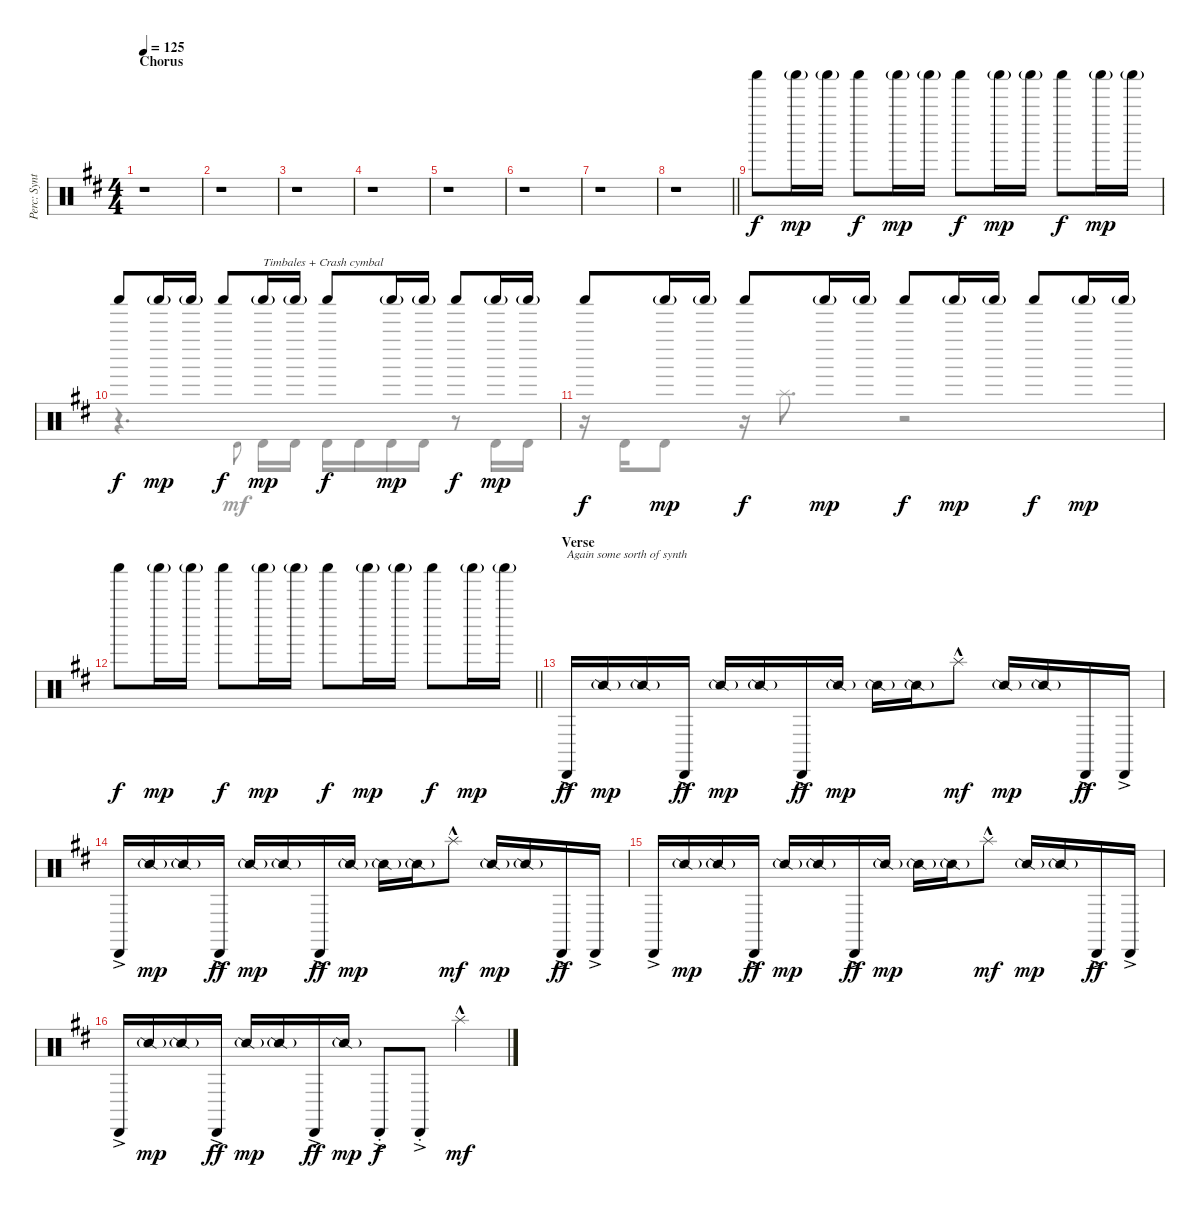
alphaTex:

\track ("Perc: Synth + Shaker + Timbales" "Perc: Synt") {instrument percussion}
\staff {score}
\articulation defaults
\voice
\ts (4 4)
\section ("" "Chorus")
\tempo 125
\clef neutral
\ks bminor
r.1{dy mp} |
r.1 |
r.1 |
r.1 |
r.1 |
r.1 |
r.1 |
\barLineRight lightlight
r.1 |
\section ("" "")
"Shaker (hit)".8{dy f} "Shaker (hit)"{g}.16{dy mp} "Shaker (hit)"{g}.16 "Shaker (hit)".8{dy f} "Shaker (hit)"{g}.16{dy mp} "Shaker (hit)"{g}.16 "Shaker (hit)".8{dy f} "Shaker (hit)"{g}.16{dy mp} "Shaker (hit)"{g}.16 "Shaker (hit)".8{dy f} "Shaker (hit)"{g}.16{dy mp} "Shaker (hit)"{g}.16 |
"Shaker (hit)".8{dy f} "Shaker (hit)"{g}.16{dy mp} "Shaker (hit)"{g}.16 "Shaker (hit)".8{dy f} "Shaker (hit)"{g}.16{txt "Timbales + Crash cymbal" dy mp} "Shaker (hit)"{g}.16 "Shaker (hit)".8{dy f} "Shaker (hit)"{g}.16{dy mp} "Shaker (hit)"{g}.16 "Shaker (hit)".8{dy f} "Shaker (hit)"{g}.16{dy mp} "Shaker (hit)"{g}.16 |
"Shaker (hit)".8{dy f} "Shaker (hit)"{g}.16{dy mp} "Shaker (hit)"{g}.16 "Shaker (hit)".8{dy f} "Shaker (hit)"{g}.16{dy mp} "Shaker (hit)"{g}.16 "Shaker (hit)".8{dy f} "Shaker (hit)"{g}.16{dy mp} "Shaker (hit)"{g}.16 "Shaker (hit)".8{dy f} "Shaker (hit)"{g}.16{dy mp} "Shaker (hit)"{g}.16 |
\barLineRight lightlight "Shaker (hit)".8{dy f} "Shaker (hit)"{g}.16{dy mp} "Shaker (hit)"{g}.16 "Shaker (hit)".8{dy f} "Shaker (hit)"{g}.16{dy mp} "Shaker (hit)"{g}.16 "Shaker (hit)".8{dy f} "Shaker (hit)"{g}.16{dy mp} "Shaker (hit)"{g}.16 "Shaker (hit)".8{dy f} "Shaker (hit)"{g}.16{dy mp} "Shaker (hit)"{g}.16
|
\section ("" "Verse")
"Cabasa (hit)"{ac}.16{txt "Again some sorth of synth" dy ff} "Snare (side stick) 2"{g}.16{dy mp} "Snare (side stick) 2"{g}.16 "Cabasa (hit)"{ac}.16{dy ff} "Snare (side stick) 2"{g}.16{dy mp} "Snare (side stick) 2"{g}.16 "Cabasa (hit)"{ac}.16{dy ff} "Snare (side stick) 2"{g}.16{dy mp} "Snare (side stick) 2"{g}.16 "Snare (side stick) 2"{g}.16 "Splash (hit)"{hac}.8{dy mf} "Snare (side stick) 2"{g}.16{dy mp} "Snare (side stick) 2"{g}.16 "Cabasa (hit)"{ac}.16{dy ff} "Cabasa (hit)"{ac}.16 |
"Cabasa (hit)"{ac}.16 "Snare (side stick) 2"{g}.16{dy mp} "Snare (side stick) 2"{g}.16 "Cabasa (hit)"{ac}.16{dy ff} "Snare (side stick) 2"{g}.16{dy mp} "Snare (side stick) 2"{g}.16 "Cabasa (hit)"{ac}.16{dy ff} "Snare (side stick) 2"{g}.16{dy mp} "Snare (side stick) 2"{g}.16 "Snare (side stick) 2"{g}.16 "Splash (hit)"{hac}.8{dy mf} "Snare (side stick) 2"{g}.16{dy mp} "Snare (side stick) 2"{g}.16 "Cabasa (hit)"{ac}.16{dy ff} "Cabasa (hit)"{ac}.16 |
"Cabasa (hit)"{ac}.16 "Snare (side stick) 2"{g}.16{dy mp} "Snare (side stick) 2"{g}.16 "Cabasa (hit)"{ac}.16{dy ff} "Snare (side stick) 2"{g}.16{dy mp} "Snare (side stick) 2"{g}.16 "Cabasa (hit)"{ac}.16{dy ff} "Snare (side stick) 2"{g}.16{dy mp} "Snare (side stick) 2"{g}.16 "Snare (side stick) 2"{g}.16 "Splash (hit)"{hac}.8{dy mf} "Snare (side stick) 2"{g}.16{dy mp} "Snare (side stick) 2"{g}.16 "Cabasa (hit)"{ac}.16{dy ff} "Cabasa (hit)"{ac}.16 |
"Cabasa (hit)"{ac}.16 "Snare (side stick) 2"{g}.16{dy mp} "Snare (side stick) 2"{g}.16 "Cabasa (hit)"{ac}.16{dy ff} "Snare (side stick) 2"{g}.16{dy mp} "Snare (side stick) 2"{g}.16 "Cabasa (hit)"{ac}.16{dy ff} "Snare (side stick) 2"{g}.16{dy mp} "Cabasa (hit)"{ac st}.8{dy f} "Cabasa (hit)"{ac st}.8 "Splash (hit)"{hac}.4{dy mf}
\voice
\clef neutral
\ottava regular
\simile none
\ks bminor
|
|
|
|
|
|
|
\barLineRight lightlight
|
|
r.4{d} "Timbale high (hit)".8{gr onbeat} "Timbale high (hit)".16 "Timbale high (hit)".16 "Timbale high (hit)".16 "Timbale high (hit)".16 "Timbale high (hit)".16 "Timbale high (hit)".16 r.8 "Timbale high (hit)".16 "Timbale high (hit)".16 |
r.16 "Timbale high (hit)".16 "Timbale high (hit)".8 r.16 "Splash (hit)".8{d} r.2 |
\barLineRight lightlight
|
|
|
|
